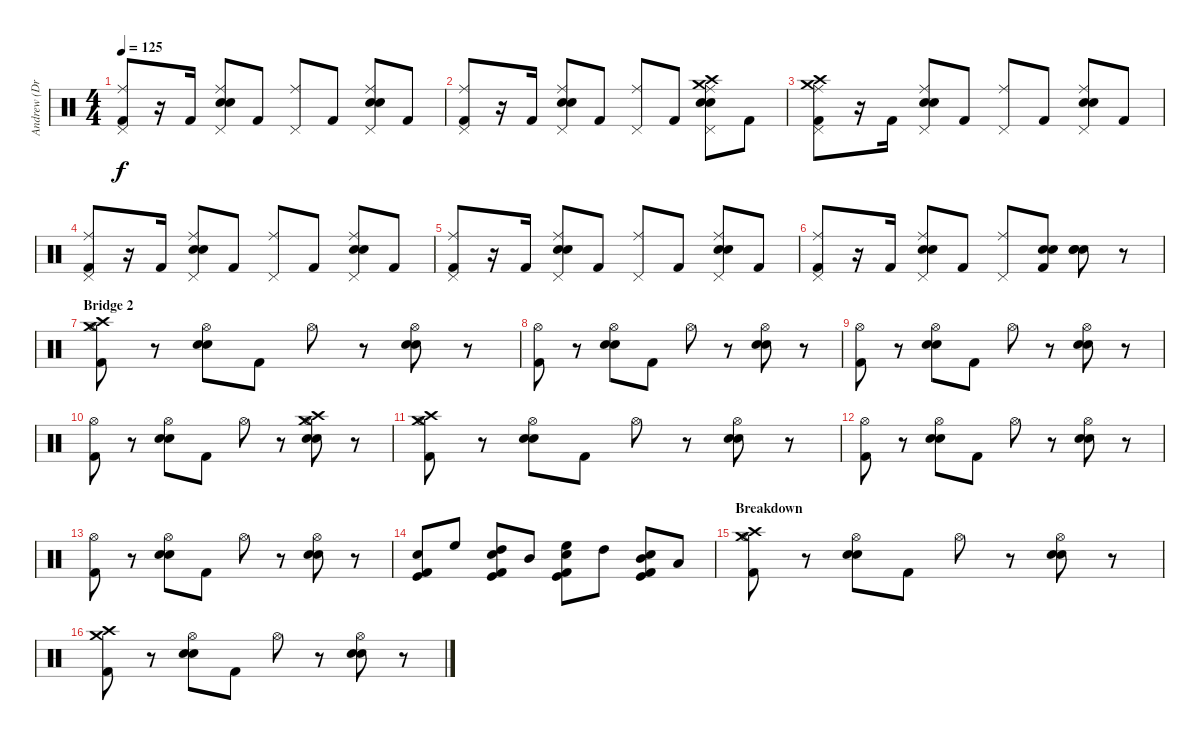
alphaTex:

\track ("Andrew (Drums)" "Andrew (Dr") {instrument percussion}
\staff {score}
\articulation defaults
\ts (4 4)
\tempo 125
\clef neutral
\ks c
("Pedal Hi-Hat (hit)" "Ride (middle)" "Kick (hit) 2").8{dy f} r.16 "Kick (hit) 2".16 ("Pedal Hi-Hat (hit)" "Ride (middle)" "Snare (hit) 2" "Electric Snare (hit)").8 "Kick (hit) 2".8 ("Pedal Hi-Hat (hit)" "Ride (middle)").8 "Kick (hit) 2".8 ("Pedal Hi-Hat (hit)" "Ride (middle)" "Snare (hit) 2" "Electric Snare (hit)").8 "Kick (hit) 2".8 |
("Pedal Hi-Hat (hit)" "Ride (middle)" "Kick (hit) 2").8 r.16 "Kick (hit) 2".16 ("Pedal Hi-Hat (hit)" "Ride (middle)" "Snare (hit) 2" "Electric Snare (hit)").8 "Kick (hit) 2".8 ("Pedal Hi-Hat (hit)" "Ride (middle)").8 "Kick (hit) 2".8 ("Crash medium (hit)" "Crash high (hit)" "Pedal Hi-Hat (hit)" "Ride (middle)" "Snare (hit) 2" "Electric Snare (hit)").8 "Kick (hit) 2".8 |
("Crash high (hit)" "Crash medium (hit)" "Pedal Hi-Hat (hit)" "Ride (middle)" "Kick (hit) 2").8 r.16 "Kick (hit) 2".16 ("Pedal Hi-Hat (hit)" "Ride (middle)" "Snare (hit) 2" "Electric Snare (hit)").8 "Kick (hit) 2".8 ("Pedal Hi-Hat (hit)" "Ride (middle)").8 "Kick (hit) 2".8 ("Pedal Hi-Hat (hit)" "Ride (middle)" "Snare (hit) 2" "Electric Snare (hit)").8 "Kick (hit) 2".8 |
("Pedal Hi-Hat (hit)" "Ride (middle)" "Kick (hit) 2").8 r.16 "Kick (hit) 2".16 ("Pedal Hi-Hat (hit)" "Ride (middle)" "Snare (hit) 2" "Electric Snare (hit)").8 "Kick (hit) 2".8 ("Pedal Hi-Hat (hit)" "Ride (middle)").8 "Kick (hit) 2".8 ("Pedal Hi-Hat (hit)" "Ride (middle)" "Snare (hit) 2" "Electric Snare (hit)").8 "Kick (hit) 2".8 |
("Pedal Hi-Hat (hit)" "Ride (middle)" "Kick (hit) 2").8 r.16 "Kick (hit) 2".16 ("Pedal Hi-Hat (hit)" "Ride (middle)" "Snare (hit) 2" "Electric Snare (hit)").8 "Kick (hit) 2".8 ("Pedal Hi-Hat (hit)" "Ride (middle)").8 "Kick (hit) 2".8 ("Pedal Hi-Hat (hit)" "Ride (middle)" "Snare (hit) 2" "Electric Snare (hit)").8 "Kick (hit) 2".8 |
("Pedal Hi-Hat (hit)" "Ride (middle)" "Kick (hit) 2").8 r.16 "Kick (hit) 2".16 ("Pedal Hi-Hat (hit)" "Ride (middle)" "Snare (hit) 2" "Electric Snare (hit)").8 "Kick (hit) 2".8 ("Pedal Hi-Hat (hit)" "Ride (middle)").8 ("Electric Snare (hit)" "Snare (hit) 2" "Kick (hit) 2").8 ("Electric Snare (hit)" "Snare (hit) 2" "Electric Snare (hit)").8 r.8 |
\section ("" "Bridge 2")
("Crash high (hit)" "Crash medium (hit)" "Hi-Hat (open)" "Kick (hit) 2").8 r.8 ("Hi-Hat (open)" "Snare (hit) 2" "Electric Snare (hit)").8 "Kick (hit) 2".8 "Hi-Hat (open)".8 r.8 ("Hi-Hat (open)" "Snare (hit) 2" "Electric Snare (hit)").8 r.8 |
("Hi-Hat (open)" "Kick (hit) 2").8 r.8 ("Hi-Hat (open)" "Snare (hit) 2" "Electric Snare (hit)").8 "Kick (hit) 2".8 "Hi-Hat (open)".8 r.8 ("Hi-Hat (open)" "Snare (hit) 2" "Electric Snare (hit)").8 r.8 |
("Hi-Hat (open)" "Kick (hit) 2").8 r.8 ("Hi-Hat (open)" "Snare (hit) 2" "Electric Snare (hit)").8 "Kick (hit) 2".8 "Hi-Hat (open)".8 r.8 ("Hi-Hat (open)" "Snare (hit) 2" "Electric Snare (hit)").8 r.8 |
("Hi-Hat (open)" "Kick (hit) 2").8 r.8 ("Hi-Hat (open)" "Snare (hit) 2" "Electric Snare (hit)").8 "Kick (hit) 2".8 "Hi-Hat (open)".8 r.8 ("Crash high (hit)" "Crash medium (hit)" "Hi-Hat (open)" "Snare (hit) 2" "Electric Snare (hit)").8 r.8 |
("Crash high (hit)" "Crash medium (hit)" "Hi-Hat (open)" "Kick (hit) 2").8 r.8 ("Hi-Hat (open)" "Snare (hit) 2" "Electric Snare (hit)").8 "Kick (hit) 2".8 "Hi-Hat (open)".8 r.8 ("Hi-Hat (open)" "Snare (hit) 2" "Electric Snare (hit)").8 r.8 |
("Hi-Hat (open)" "Kick (hit) 2").8 r.8 ("Hi-Hat (open)" "Snare (hit) 2" "Electric Snare (hit)").8 "Kick (hit) 2".8 "Hi-Hat (open)".8 r.8 ("Hi-Hat (open)" "Snare (hit) 2" "Electric Snare (hit)").8 r.8 |
("Hi-Hat (open)" "Kick (hit) 2").8 r.8 ("Hi-Hat (open)" "Snare (hit) 2" "Electric Snare (hit)").8 "Kick (hit) 2".8 "Hi-Hat (open)".8 r.8 ("Hi-Hat (open)" "Snare (hit) 2" "Electric Snare (hit)").8 r.8 |
("Electric Snare (hit)" "Kick (hit) 2" "Kick (hit)").8 "High Floor Tom (hit)".8 ("High Tom (hit)" "Electric Snare (hit)" "Kick (hit) 2" "Kick (hit)").8 "Mid Tom (hit)".8 ("High Floor Tom (hit)" "Electric Snare (hit)" "Kick (hit) 2" "Kick (hit)").8 "High Tom (hit)".8 ("Mid Tom (hit)" "Electric Snare (hit)" "Kick (hit) 2" "Kick (hit)").8 "Low Tom (hit)".8 |
\section ("" "Breakdown")
("Crash medium (hit)" "Crash high (hit)" "Hi-Hat (open)" "Kick (hit) 2").8 r.8 ("Hi-Hat (open)" "Snare (hit) 2" "Electric Snare (hit)").8 "Kick (hit) 2".8 "Hi-Hat (open)".8 r.8 ("Hi-Hat (open)" "Snare (hit) 2" "Electric Snare (hit)").8 r.8 |
("Crash medium (hit)" "Crash high (hit)" "Kick (hit) 2").8 r.8 ("Hi-Hat (open)" "Snare (hit) 2" "Electric Snare (hit)").8 "Kick (hit) 2".8 "Hi-Hat (open)".8 r.8 ("Hi-Hat (open)" "Snare (hit) 2" "Electric Snare (hit)").8 r.8
